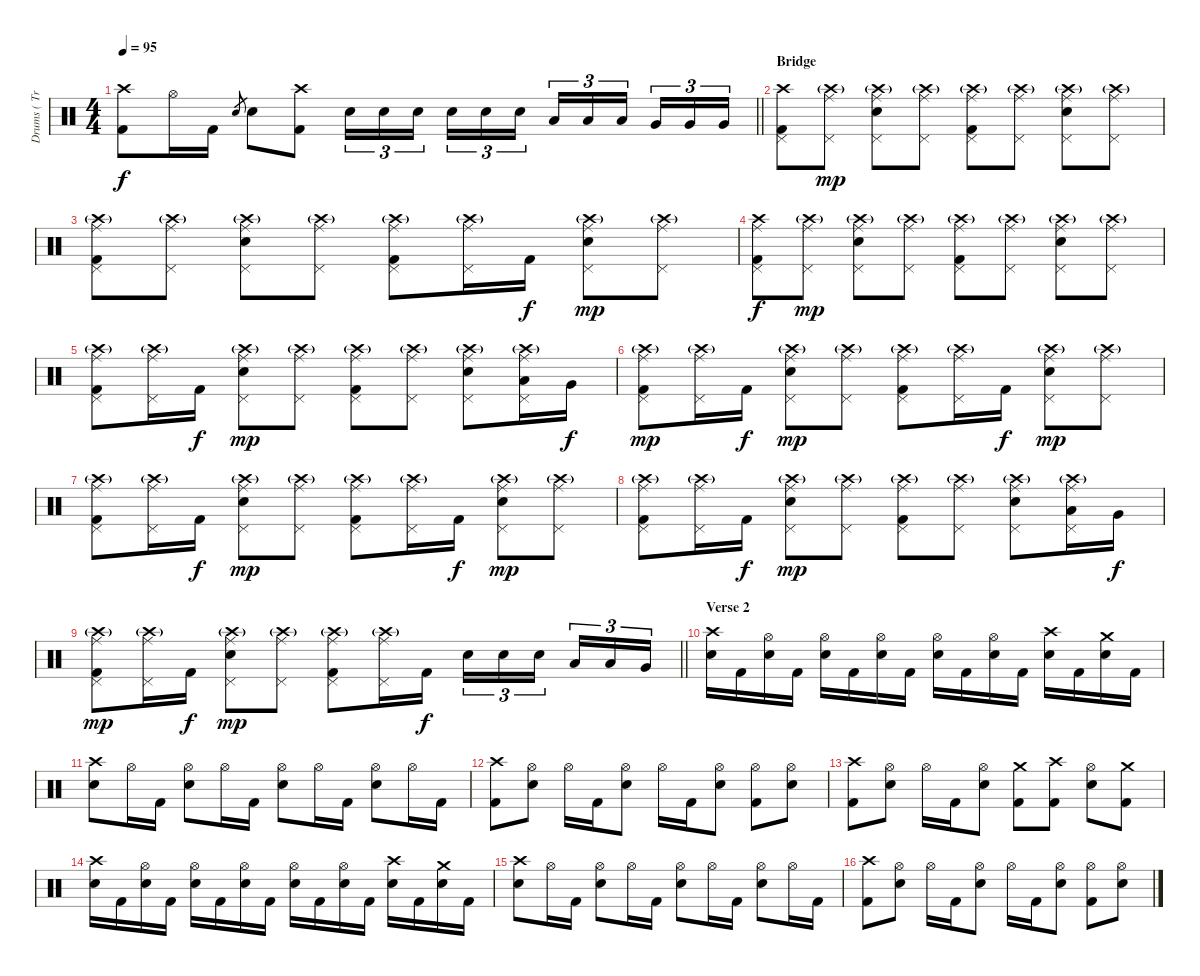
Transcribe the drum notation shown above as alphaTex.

\track ("Drums ( Trivett Wingo )" "Drums ( Tr") {instrument percussion}
\staff {score}
\articulation defaults
\ts (4 4)
\tempo 95
\clef neutral
\barLineRight lightlight
\ks c
("Crash high (hit)" "Kick (hit) 2").8{dy f} "Hi-Hat (open)".16 "Kick (hit) 2".16 "Electric Snare (hit)".8{gr} "Electric Snare (hit)".8 ("Crash high (hit)" "Kick (hit) 2").8 "Electric Snare (hit)".16{tu (3 2)} "Electric Snare (hit)".16{tu (3 2)} "Electric Snare (hit)".16{tu (3 2) beam splitsecondary} "Electric Snare (hit)".16{tu (3 2)} "Electric Snare (hit)".16{tu (3 2)} "Electric Snare (hit)".16{tu (3 2)} "Low Tom (hit)".16{tu (3 2)} "Low Tom (hit)".16{tu (3 2)} "Low Tom (hit)".16{tu (3 2) beam splitsecondary} "Very Low Tom (hit)".16{tu (3 2)} "Very Low Tom (hit)".16{tu (3 2)} "Very Low Tom (hit)".16{tu (3 2)} |
\section ("" "Bridge")
("Crash high (hit)" "Pedal Hi-Hat (hit)" "Kick (hit) 2").8 ("Crash high (hit)"{g} "Ride (middle)" "Pedal Hi-Hat (hit)").8{dy mp} ("Crash high (hit)"{g} "Ride (middle)" "Pedal Hi-Hat (hit)" "Electric Snare (hit)").8 ("Crash high (hit)"{g} "Ride (middle)" "Pedal Hi-Hat (hit)").8 ("Crash high (hit)"{g} "Ride (middle)" "Pedal Hi-Hat (hit)" "Kick (hit) 2").8 ("Crash high (hit)"{g} "Ride (middle)" "Pedal Hi-Hat (hit)").8 ("Crash high (hit)"{g} "Ride (middle)" "Pedal Hi-Hat (hit)" "Electric Snare (hit)").8 ("Crash high (hit)"{g} "Ride (middle)" "Pedal Hi-Hat (hit)").8 |
("Crash high (hit)"{g} "Ride (middle)" "Pedal Hi-Hat (hit)" "Kick (hit) 2").8 ("Crash high (hit)"{g} "Ride (middle)" "Pedal Hi-Hat (hit)").8 ("Crash high (hit)"{g} "Ride (middle)" "Pedal Hi-Hat (hit)" "Electric Snare (hit)").8 ("Crash high (hit)"{g} "Ride (middle)" "Pedal Hi-Hat (hit)").8 ("Crash high (hit)"{g} "Ride (middle)" "Pedal Hi-Hat (hit)" "Kick (hit) 2").8 ("Crash high (hit)"{g} "Ride (middle)" "Pedal Hi-Hat (hit)").16 "Kick (hit) 2".16{dy f} ("Crash high (hit)"{g} "Ride (middle)" "Pedal Hi-Hat (hit)" "Electric Snare (hit)").8{dy mp} ("Crash high (hit)"{g} "Ride (middle)" "Pedal Hi-Hat (hit)").8 |
("Crash high (hit)" "Ride (middle)" "Pedal Hi-Hat (hit)" "Kick (hit) 2").8{dy f} ("Crash high (hit)"{g} "Ride (middle)" "Pedal Hi-Hat (hit)").8{dy mp} ("Crash high (hit)"{g} "Ride (middle)" "Pedal Hi-Hat (hit)" "Electric Snare (hit)").8 ("Crash high (hit)"{g} "Ride (middle)" "Pedal Hi-Hat (hit)").8 ("Crash high (hit)"{g} "Ride (middle)" "Pedal Hi-Hat (hit)" "Kick (hit) 2").8 ("Crash high (hit)"{g} "Ride (middle)" "Pedal Hi-Hat (hit)").8 ("Crash high (hit)"{g} "Ride (middle)" "Pedal Hi-Hat (hit)" "Electric Snare (hit)").8 ("Crash high (hit)"{g} "Ride (middle)" "Pedal Hi-Hat (hit)").8 |
("Crash high (hit)"{g} "Ride (middle)" "Pedal Hi-Hat (hit)" "Kick (hit) 2").8 ("Crash high (hit)"{g} "Ride (middle)" "Pedal Hi-Hat (hit)").16 "Kick (hit) 2".16{dy f} ("Crash high (hit)"{g} "Ride (middle)" "Pedal Hi-Hat (hit)" "Electric Snare (hit)").8{dy mp} ("Crash high (hit)"{g} "Ride (middle)" "Pedal Hi-Hat (hit)").8 ("Crash high (hit)"{g} "Ride (middle)" "Pedal Hi-Hat (hit)" "Kick (hit) 2").8 ("Crash high (hit)"{g} "Ride (middle)" "Pedal Hi-Hat (hit)").8 ("Crash high (hit)"{g} "Ride (middle)" "Pedal Hi-Hat (hit)" "Electric Snare (hit)").8 ("Crash high (hit)"{g} "Ride (middle)" "Pedal Hi-Hat (hit)" "Low Tom (hit)").16 "Very Low Tom (hit)".16{dy f} |
("Crash high (hit)"{g} "Ride (middle)" "Pedal Hi-Hat (hit)" "Kick (hit) 2").8{dy mp} ("Crash high (hit)"{g} "Ride (middle)" "Pedal Hi-Hat (hit)").16 "Kick (hit) 2".16{dy f} ("Crash high (hit)"{g} "Ride (middle)" "Pedal Hi-Hat (hit)" "Electric Snare (hit)").8{dy mp} ("Crash high (hit)"{g} "Ride (middle)" "Pedal Hi-Hat (hit)").8 ("Crash high (hit)"{g} "Ride (middle)" "Pedal Hi-Hat (hit)" "Kick (hit) 2").8 ("Crash high (hit)"{g} "Ride (middle)" "Pedal Hi-Hat (hit)").16 "Kick (hit) 2".16{dy f} ("Crash high (hit)"{g} "Ride (middle)" "Pedal Hi-Hat (hit)" "Electric Snare (hit)").8{dy mp} ("Crash high (hit)"{g} "Ride (middle)" "Pedal Hi-Hat (hit)").8 |
("Crash high (hit)"{g} "Ride (middle)" "Pedal Hi-Hat (hit)" "Kick (hit) 2").8 ("Crash high (hit)"{g} "Ride (middle)" "Pedal Hi-Hat (hit)").16 "Kick (hit) 2".16{dy f} ("Crash high (hit)"{g} "Ride (middle)" "Pedal Hi-Hat (hit)" "Electric Snare (hit)").8{dy mp} ("Crash high (hit)"{g} "Ride (middle)" "Pedal Hi-Hat (hit)").8 ("Crash high (hit)"{g} "Ride (middle)" "Pedal Hi-Hat (hit)" "Kick (hit) 2").8 ("Crash high (hit)"{g} "Ride (middle)" "Pedal Hi-Hat (hit)").16 "Kick (hit) 2".16{dy f} ("Crash high (hit)"{g} "Ride (middle)" "Pedal Hi-Hat (hit)" "Electric Snare (hit)").8{dy mp} ("Crash high (hit)"{g} "Ride (middle)" "Pedal Hi-Hat (hit)").8 |
("Crash high (hit)"{g} "Ride (middle)" "Pedal Hi-Hat (hit)" "Kick (hit) 2").8 ("Crash high (hit)"{g} "Ride (middle)" "Pedal Hi-Hat (hit)").16 "Kick (hit) 2".16{dy f} ("Crash high (hit)"{g} "Ride (middle)" "Pedal Hi-Hat (hit)" "Electric Snare (hit)").8{dy mp} ("Crash high (hit)"{g} "Ride (middle)" "Pedal Hi-Hat (hit)").8 ("Crash high (hit)"{g} "Ride (middle)" "Pedal Hi-Hat (hit)" "Kick (hit) 2").8 ("Crash high (hit)"{g} "Ride (middle)" "Pedal Hi-Hat (hit)").8 ("Crash high (hit)"{g} "Ride (middle)" "Pedal Hi-Hat (hit)" "Electric Snare (hit)").8 ("Crash high (hit)"{g} "Ride (middle)" "Pedal Hi-Hat (hit)" "Low Tom (hit)").16 "Very Low Tom (hit)".16{dy f} |
\barLineRight lightlight
("Crash high (hit)"{g} "Ride (middle)" "Pedal Hi-Hat (hit)" "Kick (hit) 2").8{dy mp} ("Crash high (hit)"{g} "Ride (middle)" "Pedal Hi-Hat (hit)").16 "Kick (hit) 2".16{dy f} ("Crash high (hit)"{g} "Ride (middle)" "Pedal Hi-Hat (hit)" "Electric Snare (hit)").8{dy mp} ("Crash high (hit)"{g} "Ride (middle)" "Pedal Hi-Hat (hit)").8 ("Crash high (hit)"{g} "Ride (middle)" "Pedal Hi-Hat (hit)" "Kick (hit) 2").8 ("Crash high (hit)"{g} "Ride (middle)" "Pedal Hi-Hat (hit)").16 "Kick (hit) 2".16{dy f} "Electric Snare (hit)".16{tu (3 2)} "Electric Snare (hit)".16{tu (3 2)} "Electric Snare (hit)".16{tu (3 2) beam splitsecondary} "Low Tom (hit)".16{tu (3 2)} "Low Tom (hit)".16{tu (3 2)} "Very Low Tom (hit)".16{tu (3 2)} |
\section ("" "Verse 2")
("Crash high (hit)" "Electric Snare (hit)").16 "Kick (hit) 2".16 ("Hi-Hat (open)" "Electric Snare (hit)").16 "Kick (hit) 2".16 ("Hi-Hat (open)" "Electric Snare (hit)").16 "Kick (hit) 2".16 ("Hi-Hat (open)" "Electric Snare (hit)").16 "Kick (hit) 2".16 ("Hi-Hat (open)" "Electric Snare (hit)").16 "Kick (hit) 2".16 ("Hi-Hat (open)" "Electric Snare (hit)").16 "Kick (hit) 2".16 ("Crash high (hit)" "Electric Snare (hit)").16 "Kick (hit) 2".16 ("Crash medium (hit)" "Electric Snare (hit)").16 "Kick (hit) 2".16 |
("Crash high (hit)" "Electric Snare (hit)").8 "Hi-Hat (open)".16 "Kick (hit) 2".16 ("Hi-Hat (open)" "Electric Snare (hit)").8 "Hi-Hat (open)".16 "Kick (hit) 2".16 ("Hi-Hat (open)" "Electric Snare (hit)").8 "Hi-Hat (open)".16 "Kick (hit) 2".16 ("Hi-Hat (open)" "Electric Snare (hit)").8 "Hi-Hat (open)".16 "Kick (hit) 2".16 |
("Crash high (hit)" "Kick (hit) 2").8 ("Hi-Hat (open)" "Electric Snare (hit)").8 "Hi-Hat (open)".16 "Kick (hit) 2".16 ("Hi-Hat (open)" "Electric Snare (hit)").8 "Hi-Hat (open)".16 "Kick (hit) 2".16 ("Hi-Hat (open)" "Electric Snare (hit)").8 ("Hi-Hat (open)" "Kick (hit) 2").8 ("Hi-Hat (open)" "Electric Snare (hit)").8 |
("Crash high (hit)" "Kick (hit) 2").8 ("Hi-Hat (open)" "Electric Snare (hit)").8 "Hi-Hat (open)".16 "Kick (hit) 2".16 ("Hi-Hat (open)" "Electric Snare (hit)").8 ("Crash medium (hit)" "Kick (hit) 2").8 ("Crash high (hit)" "Kick (hit) 2").8 ("Hi-Hat (open)" "Electric Snare (hit)").8 ("Crash medium (hit)" "Kick (hit) 2").8 |
("Crash high (hit)" "Electric Snare (hit)").16 "Kick (hit) 2".16 ("Hi-Hat (open)" "Electric Snare (hit)").16 "Kick (hit) 2".16 ("Hi-Hat (open)" "Electric Snare (hit)").16 "Kick (hit) 2".16 ("Hi-Hat (open)" "Electric Snare (hit)").16 "Kick (hit) 2".16 ("Hi-Hat (open)" "Electric Snare (hit)").16 "Kick (hit) 2".16 ("Hi-Hat (open)" "Electric Snare (hit)").16 "Kick (hit) 2".16 ("Crash high (hit)" "Electric Snare (hit)").16 "Kick (hit) 2".16 ("Crash medium (hit)" "Electric Snare (hit)").16 "Kick (hit) 2".16 |
("Crash high (hit)" "Electric Snare (hit)").8 "Hi-Hat (open)".16 "Kick (hit) 2".16 ("Hi-Hat (open)" "Electric Snare (hit)").8 "Hi-Hat (open)".16 "Kick (hit) 2".16 ("Hi-Hat (open)" "Electric Snare (hit)").8 "Hi-Hat (open)".16 "Kick (hit) 2".16 ("Hi-Hat (open)" "Electric Snare (hit)").8 "Hi-Hat (open)".16 "Kick (hit) 2".16 |
("Crash high (hit)" "Kick (hit) 2").8 ("Hi-Hat (open)" "Electric Snare (hit)").8 "Hi-Hat (open)".16 "Kick (hit) 2".16 ("Hi-Hat (open)" "Electric Snare (hit)").8 "Hi-Hat (open)".16 "Kick (hit) 2".16 ("Hi-Hat (open)" "Electric Snare (hit)").8 ("Hi-Hat (open)" "Kick (hit) 2").8 ("Hi-Hat (open)" "Electric Snare (hit)").8
